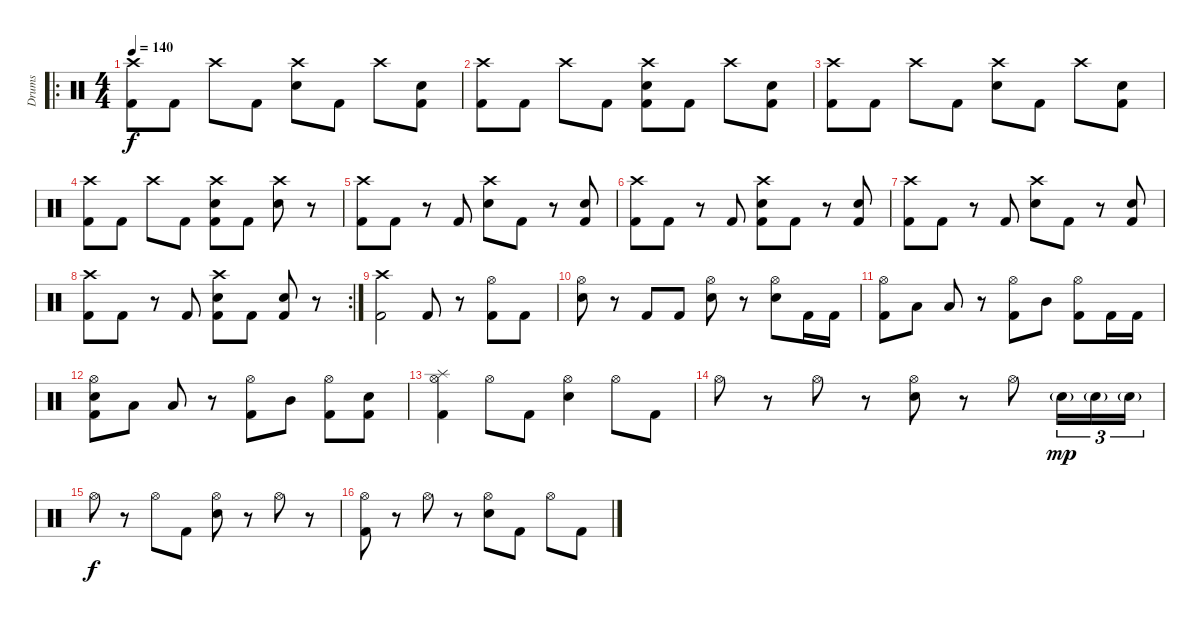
\track ("Drums" "Drums") {instrument percussion}
\staff {score}
\articulation defaults
\ro
\ts (4 4)
\tempo 140
\clef neutral
\ks c
("Crash high (hit)" "Kick (hit) 2").8{dy f} "Kick (hit) 2".8 "Crash high (hit)".8 "Kick (hit) 2".8 ("Crash high (hit)" "Electric Snare (hit)").8 "Kick (hit) 2".8 "Crash high (hit)".8 ("Electric Snare (hit)" "Kick (hit) 2").8 |
("Crash high (hit)" "Kick (hit) 2").8 "Kick (hit) 2".8 "Crash high (hit)".8 "Kick (hit) 2".8 ("Crash high (hit)" "Electric Snare (hit)" "Kick (hit) 2").8 "Kick (hit) 2".8 "Crash high (hit)".8 ("Electric Snare (hit)" "Kick (hit) 2").8 |
("Crash high (hit)" "Kick (hit) 2").8 "Kick (hit) 2".8 "Crash high (hit)".8 "Kick (hit) 2".8 ("Crash high (hit)" "Electric Snare (hit)").8 "Kick (hit) 2".8 "Crash high (hit)".8 ("Electric Snare (hit)" "Kick (hit) 2").8 |
("Crash high (hit)" "Kick (hit) 2").8 "Kick (hit) 2".8 "Crash high (hit)".8 "Kick (hit) 2".8 ("Crash high (hit)" "Electric Snare (hit)" "Kick (hit) 2").8 "Kick (hit) 2".8 ("Crash high (hit)" "Electric Snare (hit)").8 r.8 |
("Crash high (hit)" "Kick (hit) 2").8 "Kick (hit) 2".8 r.8 "Kick (hit) 2".8 ("Crash high (hit)" "Electric Snare (hit)").8 "Kick (hit) 2".8 r.8 ("Electric Snare (hit)" "Kick (hit) 2").8 |
("Crash high (hit)" "Kick (hit) 2").8 "Kick (hit) 2".8 r.8 "Kick (hit) 2".8 ("Crash high (hit)" "Electric Snare (hit)" "Kick (hit) 2").8 "Kick (hit) 2".8 r.8 ("Electric Snare (hit)" "Kick (hit) 2").8 |
("Crash high (hit)" "Kick (hit) 2").8 "Kick (hit) 2".8 r.8 "Kick (hit) 2".8 ("Crash high (hit)" "Electric Snare (hit)").8 "Kick (hit) 2".8 r.8 ("Electric Snare (hit)" "Kick (hit) 2").8 |
\rc 2
("Crash high (hit)" "Kick (hit) 2").8 "Kick (hit) 2".8 r.8 "Kick (hit) 2".8 ("Crash high (hit)" "Electric Snare (hit)" "Kick (hit) 2").8 "Kick (hit) 2".8 ("Electric Snare (hit)" "Kick (hit) 2").8 r.8 |
("Crash high (hit)" "Kick (hit) 2").2 "Kick (hit) 2".8 r.8 ("Hi-Hat (open)" "Kick (hit) 2").8 "Kick (hit) 2".8 |
("Hi-Hat (open)" "Electric Snare (hit)").8 r.8 "Kick (hit) 2".8 "Kick (hit) 2".8 ("Hi-Hat (open)" "Electric Snare (hit)").8 r.8 ("Hi-Hat (open)" "Electric Snare (hit)").8 "Kick (hit) 2".16 "Kick (hit) 2".16 |
("Hi-Hat (open)" "Kick (hit) 2").8 "Low Tom (hit)".8 "Low Tom (hit)".8 r.8 ("Hi-Hat (open)" "Kick (hit) 2").8 "Mid Tom (hit)".8 ("Hi-Hat (open)" "Kick (hit) 2").8 "Kick (hit) 2".16 "Kick (hit) 2".16 |
("Hi-Hat (open)" "Electric Snare (hit)" "Kick (hit) 2").8 "Low Tom (hit)".8 "Low Tom (hit)".8 r.8 ("Hi-Hat (open)" "Kick (hit) 2").8 "Mid Tom (hit)".8 ("Hi-Hat (open)" "Kick (hit) 2").8 ("Electric Snare (hit)" "Kick (hit) 2").8 |
("Hi-Hat (open)" "Splash (hit)" "Kick (hit) 2").4 "Hi-Hat (open)".8 "Kick (hit) 2".8 ("Hi-Hat (open)" "Electric Snare (hit)").4 "Hi-Hat (open)".8 "Kick (hit) 2".8 |
"Hi-Hat (open)".8 r.8 "Hi-Hat (open)".8 r.8 ("Hi-Hat (open)" "Electric Snare (hit)").8 r.8 "Hi-Hat (open)".8 "Electric Snare (hit)"{g}.16{tu (3 2) dy mp} "Electric Snare (hit)"{g}.16{tu (3 2)} "Electric Snare (hit)"{g}.16{tu (3 2)} |
"Hi-Hat (open)".8{dy f} r.8 "Hi-Hat (open)".8 "Kick (hit) 2".8 ("Hi-Hat (open)" "Electric Snare (hit)").8 r.8 "Hi-Hat (open)".8 r.8 |
("Hi-Hat (open)" "Kick (hit) 2").8 r.8 "Hi-Hat (open)".8 r.8 ("Hi-Hat (open)" "Electric Snare (hit)").8 "Kick (hit) 2".8 "Hi-Hat (open)".8 "Kick (hit) 2".8
